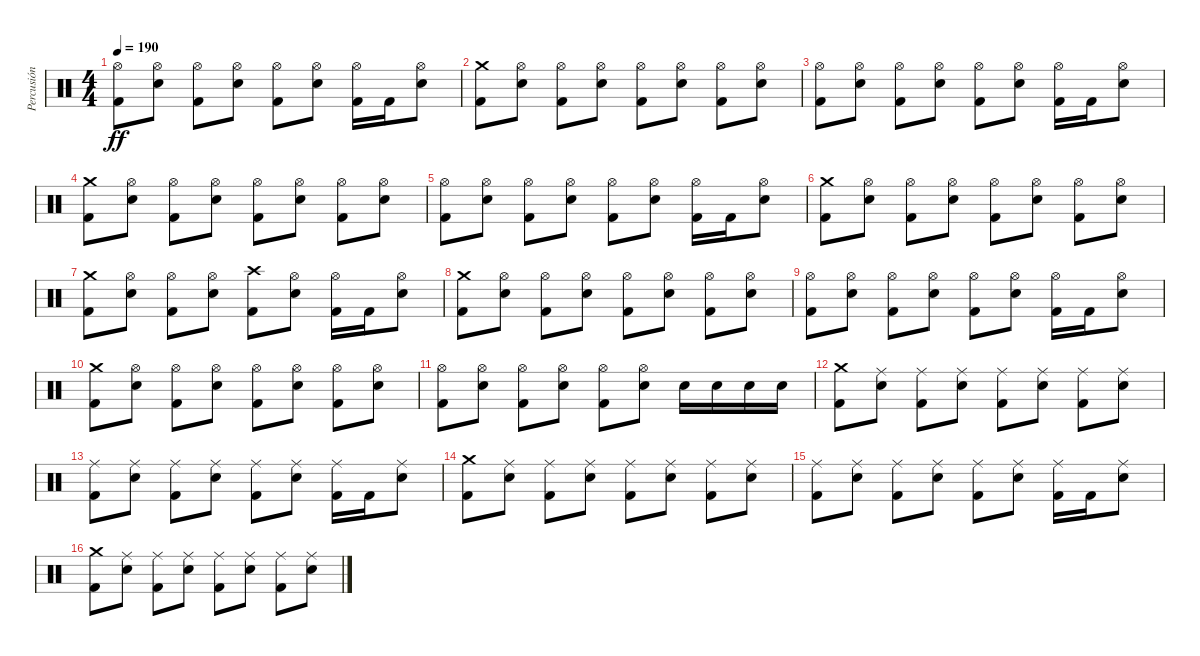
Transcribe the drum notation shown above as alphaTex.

\track ("Percusión" "Percusión") {instrument percussion}
\staff {score}
\articulation defaults
\ts (4 4)
\tempo 190
\clef neutral
\ks c
("Hi-Hat (open)" "Kick (hit) 2").8{dy ff} ("Hi-Hat (open)" "Snare (hit) 2").8 ("Hi-Hat (open)" "Kick (hit) 2").8 ("Hi-Hat (open)" "Snare (hit) 2").8 ("Hi-Hat (open)" "Kick (hit) 2").8 ("Hi-Hat (open)" "Snare (hit) 2").8 ("Hi-Hat (open)" "Kick (hit) 2").16 "Kick (hit) 2".16 ("Hi-Hat (open)" "Snare (hit) 2").8 |
("Crash medium (hit)" "Kick (hit) 2").8 ("Hi-Hat (open)" "Snare (hit) 2").8 ("Hi-Hat (open)" "Kick (hit) 2").8 ("Hi-Hat (open)" "Snare (hit) 2").8 ("Hi-Hat (open)" "Kick (hit) 2").8 ("Hi-Hat (open)" "Snare (hit) 2").8 ("Hi-Hat (open)" "Kick (hit) 2").8 ("Hi-Hat (open)" "Snare (hit) 2").8 |
("Hi-Hat (open)" "Kick (hit) 2").8 ("Hi-Hat (open)" "Snare (hit) 2").8 ("Hi-Hat (open)" "Kick (hit) 2").8 ("Hi-Hat (open)" "Snare (hit) 2").8 ("Hi-Hat (open)" "Kick (hit) 2").8 ("Hi-Hat (open)" "Snare (hit) 2").8 ("Hi-Hat (open)" "Kick (hit) 2").16 "Kick (hit) 2".16 ("Hi-Hat (open)" "Snare (hit) 2").8 |
("Crash medium (hit)" "Kick (hit) 2").8 ("Hi-Hat (open)" "Snare (hit) 2").8 ("Hi-Hat (open)" "Kick (hit) 2").8 ("Hi-Hat (open)" "Snare (hit) 2").8 ("Hi-Hat (open)" "Kick (hit) 2").8 ("Hi-Hat (open)" "Snare (hit) 2").8 ("Hi-Hat (open)" "Kick (hit) 2").8 ("Hi-Hat (open)" "Snare (hit) 2").8 |
("Hi-Hat (open)" "Kick (hit) 2").8 ("Hi-Hat (open)" "Snare (hit) 2").8 ("Hi-Hat (open)" "Kick (hit) 2").8 ("Hi-Hat (open)" "Snare (hit) 2").8 ("Hi-Hat (open)" "Kick (hit) 2").8 ("Hi-Hat (open)" "Snare (hit) 2").8 ("Hi-Hat (open)" "Kick (hit) 2").16 "Kick (hit) 2".16 ("Hi-Hat (open)" "Snare (hit) 2").8 |
("Crash medium (hit)" "Kick (hit) 2").8 ("Hi-Hat (open)" "Snare (hit) 2").8 ("Hi-Hat (open)" "Kick (hit) 2").8 ("Hi-Hat (open)" "Snare (hit) 2").8 ("Hi-Hat (open)" "Kick (hit) 2").8 ("Hi-Hat (open)" "Snare (hit) 2").8 ("Hi-Hat (open)" "Kick (hit) 2").8 ("Hi-Hat (open)" "Snare (hit) 2").8 |
("Crash medium (hit)" "Kick (hit) 2").8 ("Hi-Hat (open)" "Snare (hit) 2").8 ("Hi-Hat (open)" "Kick (hit) 2").8 ("Hi-Hat (open)" "Snare (hit) 2").8 ("Crash high (hit)" "Kick (hit) 2").8 ("Hi-Hat (open)" "Snare (hit) 2").8 ("Hi-Hat (open)" "Kick (hit) 2").16 "Kick (hit) 2".16 ("Hi-Hat (open)" "Snare (hit) 2").8 |
("Crash medium (hit)" "Kick (hit) 2").8 ("Hi-Hat (open)" "Snare (hit) 2").8 ("Hi-Hat (open)" "Kick (hit) 2").8 ("Hi-Hat (open)" "Snare (hit) 2").8 ("Hi-Hat (open)" "Kick (hit) 2").8 ("Hi-Hat (open)" "Snare (hit) 2").8 ("Hi-Hat (open)" "Kick (hit) 2").8 ("Hi-Hat (open)" "Snare (hit) 2").8 |
("Hi-Hat (open)" "Kick (hit) 2").8 ("Hi-Hat (open)" "Snare (hit) 2").8 ("Hi-Hat (open)" "Kick (hit) 2").8 ("Hi-Hat (open)" "Snare (hit) 2").8 ("Hi-Hat (open)" "Kick (hit) 2").8 ("Hi-Hat (open)" "Snare (hit) 2").8 ("Hi-Hat (open)" "Kick (hit) 2").16 "Kick (hit) 2".16 ("Hi-Hat (open)" "Snare (hit) 2").8 |
("Crash medium (hit)" "Kick (hit) 2").8 ("Hi-Hat (open)" "Snare (hit) 2").8 ("Hi-Hat (open)" "Kick (hit) 2").8 ("Hi-Hat (open)" "Snare (hit) 2").8 ("Hi-Hat (open)" "Kick (hit) 2").8 ("Hi-Hat (open)" "Snare (hit) 2").8 ("Hi-Hat (open)" "Kick (hit) 2").8 ("Hi-Hat (open)" "Snare (hit) 2").8 |
("Hi-Hat (open)" "Kick (hit) 2").8 ("Hi-Hat (open)" "Snare (hit) 2").8 ("Hi-Hat (open)" "Kick (hit) 2").8 ("Hi-Hat (open)" "Snare (hit) 2").8 ("Hi-Hat (open)" "Kick (hit) 2").8 ("Hi-Hat (open)" "Snare (hit) 2").8 "Snare (hit) 2".16 "Snare (hit) 2".16 "Snare (hit) 2".16 "Snare (hit) 2".16 |
("Crash medium (hit)" "Kick (hit) 2").8 ("Ride (middle)" "Snare (hit) 2").8 ("Ride (middle)" "Kick (hit) 2").8 ("Ride (middle)" "Snare (hit) 2").8 ("Ride (middle)" "Kick (hit) 2").8 ("Ride (middle)" "Snare (hit) 2").8 ("Ride (middle)" "Kick (hit) 2").8 ("Ride (middle)" "Snare (hit) 2").8 |
("Ride (middle)" "Kick (hit) 2").8 ("Ride (middle)" "Snare (hit) 2").8 ("Ride (middle)" "Kick (hit) 2").8 ("Ride (middle)" "Snare (hit) 2").8 ("Ride (middle)" "Kick (hit) 2").8 ("Ride (middle)" "Snare (hit) 2").8 ("Ride (middle)" "Kick (hit) 2").16 "Kick (hit) 2".16 ("Ride (middle)" "Snare (hit) 2").8 |
("Crash medium (hit)" "Kick (hit) 2").8 ("Ride (middle)" "Snare (hit) 2").8 ("Ride (middle)" "Kick (hit) 2").8 ("Ride (middle)" "Snare (hit) 2").8 ("Ride (middle)" "Kick (hit) 2").8 ("Ride (middle)" "Snare (hit) 2").8 ("Ride (middle)" "Kick (hit) 2").8 ("Ride (middle)" "Snare (hit) 2").8 |
("Ride (middle)" "Kick (hit) 2").8 ("Ride (middle)" "Snare (hit) 2").8 ("Ride (middle)" "Kick (hit) 2").8 ("Ride (middle)" "Snare (hit) 2").8 ("Ride (middle)" "Kick (hit) 2").8 ("Ride (middle)" "Snare (hit) 2").8 ("Ride (middle)" "Kick (hit) 2").16 "Kick (hit) 2".16 ("Ride (middle)" "Snare (hit) 2").8 |
("Crash medium (hit)" "Kick (hit) 2").8 ("Ride (middle)" "Snare (hit) 2").8 ("Ride (middle)" "Kick (hit) 2").8 ("Ride (middle)" "Snare (hit) 2").8 ("Ride (middle)" "Kick (hit) 2").8 ("Ride (middle)" "Snare (hit) 2").8 ("Ride (middle)" "Kick (hit) 2").8 ("Ride (middle)" "Snare (hit) 2").8
